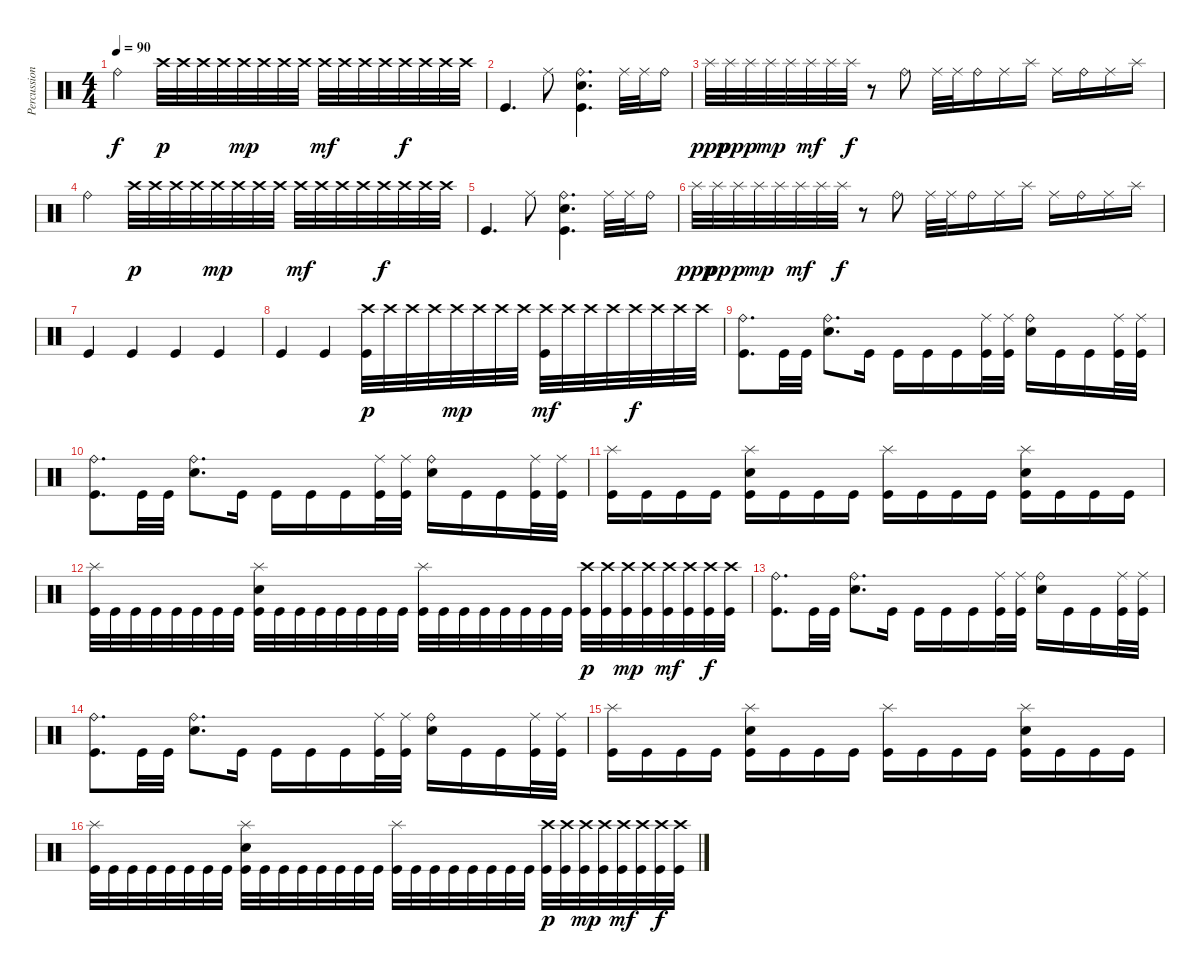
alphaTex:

\track ("Percussion" "Percussion") {instrument percussion}
\staff {score}
\articulation defaults
\ts (4 4)
\tempo 90
\clef neutral
\ks c "Ride (bell)".2{dy f} "Crash high (hit)".32{dy p} "Crash high (hit)".32 "Crash high (hit)".32 "Crash high (hit)".32 "Crash high (hit)".32{dy mp} "Crash high (hit)".32 "Crash high (hit)".32 "Crash high (hit)".32 "Crash high (hit)".32{dy mf} "Crash high (hit)".32 "Crash high (hit)".32 "Crash high (hit)".32 "Crash high (hit)".32{dy f} "Crash high (hit)".32 "Crash high (hit)".32 "Crash high (hit)".32
|
"Kick (hit)".4{d} "Ride (middle)".8 ("Ride (bell)" "Electric Snare (hit)" "Kick (hit)").4{d} "Ride (middle)".32 "Ride (middle)".32 "Ride (bell)".16 |
"Splash (hit)".32{dy ppp} "Splash (hit)".32{dy pp} "Splash (hit)".32{dy p} "Splash (hit)".32{dy mp} "Splash (hit)".32 "Splash (hit)".32{dy mf} "Splash (hit)".32 "Splash (hit)".32{dy f} r.8 "Ride (bell)".8 "Ride (middle)".32 "Ride (middle)".32 "Ride (bell)".16 "Ride (middle)".16 "Splash (hit)".16 "Ride (middle)".16 "Ride (bell)".16 "Ride (middle)".16 "Splash (hit)".16 |
"Ride (bell)".2 "Crash high (hit)".32{dy p} "Crash high (hit)".32 "Crash high (hit)".32 "Crash high (hit)".32 "Crash high (hit)".32{dy mp} "Crash high (hit)".32 "Crash high (hit)".32 "Crash high (hit)".32 "Crash high (hit)".32{dy mf} "Crash high (hit)".32 "Crash high (hit)".32 "Crash high (hit)".32 "Crash high (hit)".32{dy f} "Crash high (hit)".32 "Crash high (hit)".32 "Crash high (hit)".32 |
"Kick (hit)".4{d} "Ride (middle)".8 ("Ride (bell)" "Electric Snare (hit)" "Kick (hit)").4{d} "Ride (middle)".32 "Ride (middle)".32 "Ride (bell)".16 |
"Splash (hit)".32{dy ppp} "Splash (hit)".32{dy pp} "Splash (hit)".32{dy p} "Splash (hit)".32{dy mp} "Splash (hit)".32 "Splash (hit)".32{dy mf} "Splash (hit)".32 "Splash (hit)".32{dy f} r.8 "Ride (bell)".8 "Ride (middle)".32 "Ride (middle)".32 "Ride (bell)".16 "Ride (middle)".16 "Splash (hit)".16 "Ride (middle)".16 "Ride (bell)".16 "Ride (middle)".16 "Splash (hit)".16 |
"Kick (hit)".4 "Kick (hit)".4 "Kick (hit)".4 "Kick (hit)".4 |
"Kick (hit)".4 "Kick (hit)".4 ("Crash high (hit)" "Kick (hit)").32{dy p} "Crash high (hit)".32 "Crash high (hit)".32 "Crash high (hit)".32 "Crash high (hit)".32{dy mp} "Crash high (hit)".32 "Crash high (hit)".32 "Crash high (hit)".32 ("Crash high (hit)" "Kick (hit)").32{dy mf} "Crash high (hit)".32 "Crash high (hit)".32 "Crash high (hit)".32 "Crash high (hit)".32{dy f} "Crash high (hit)".32 "Crash high (hit)".32 "Crash high (hit)".32 |
("Ride (bell)" "Kick (hit)").8{d} "Kick (hit)".32 "Kick (hit)".32 ("Ride (bell)" "Electric Snare (hit)").8{d} "Kick (hit)".16 "Kick (hit)".16 "Kick (hit)".16 "Kick (hit)".16 ("Ride (middle)" "Kick (hit)").32 ("Ride (middle)" "Kick (hit)").32 ("Ride (bell)" "Electric Snare (hit)").16 "Kick (hit)".16 "Kick (hit)".16 ("Ride (middle)" "Kick (hit)").32 ("Ride (middle)" "Kick (hit)").32 |
("Ride (bell)" "Kick (hit)").8{d} "Kick (hit)".32 "Kick (hit)".32 ("Ride (bell)" "Electric Snare (hit)").8{d} "Kick (hit)".16 "Kick (hit)".16 "Kick (hit)".16 "Kick (hit)".16 ("Ride (middle)" "Kick (hit)").32 ("Ride (middle)" "Kick (hit)").32 ("Ride (bell)" "Electric Snare (hit)").16 "Kick (hit)".16 "Kick (hit)".16 ("Ride (middle)" "Kick (hit)").32 ("Ride (middle)" "Kick (hit)").32 |
("Splash (hit)" "Kick (hit)").16 "Kick (hit)".16 "Kick (hit)".16 "Kick (hit)".16 ("Splash (hit)" "Electric Snare (hit)" "Kick (hit)").16 "Kick (hit)".16 "Kick (hit)".16 "Kick (hit)".16 ("Splash (hit)" "Kick (hit)").16 "Kick (hit)".16 "Kick (hit)".16 "Kick (hit)".16 ("Splash (hit)" "Electric Snare (hit)" "Kick (hit)").16 "Kick (hit)".16 "Kick (hit)".16 "Kick (hit)".16 |
("Splash (hit)" "Kick (hit)").32 "Kick (hit)".32 "Kick (hit)".32 "Kick (hit)".32 "Kick (hit)".32 "Kick (hit)".32 "Kick (hit)".32 "Kick (hit)".32 ("Splash (hit)" "Electric Snare (hit)" "Kick (hit)").32 "Kick (hit)".32 "Kick (hit)".32 "Kick (hit)".32 "Kick (hit)".32 "Kick (hit)".32 "Kick (hit)".32 "Kick (hit)".32 ("Splash (hit)" "Kick (hit)").32 "Kick (hit)".32 "Kick (hit)".32 "Kick (hit)".32 "Kick (hit)".32 "Kick (hit)".32 "Kick (hit)".32 "Kick (hit)".32 ("Crash high (hit)" "Kick (hit)").32{dy p} ("Crash high (hit)" "Kick (hit)").32 ("Crash high (hit)" "Kick (hit)").32{dy mp} ("Crash high (hit)" "Kick (hit)").32 ("Crash high (hit)" "Kick (hit)").32{dy mf} ("Crash high (hit)" "Kick (hit)").32 ("Crash high (hit)" "Kick (hit)").32{dy f} ("Crash high (hit)" "Kick (hit)").32 |
("Ride (bell)" "Kick (hit)").8{d} "Kick (hit)".32 "Kick (hit)".32 ("Ride (bell)" "Electric Snare (hit)").8{d} "Kick (hit)".16 "Kick (hit)".16 "Kick (hit)".16 "Kick (hit)".16 ("Ride (middle)" "Kick (hit)").32 ("Ride (middle)" "Kick (hit)").32 ("Ride (bell)" "Electric Snare (hit)").16 "Kick (hit)".16 "Kick (hit)".16 ("Ride (middle)" "Kick (hit)").32 ("Ride (middle)" "Kick (hit)").32 |
("Ride (bell)" "Kick (hit)").8{d} "Kick (hit)".32 "Kick (hit)".32 ("Ride (bell)" "Electric Snare (hit)").8{d} "Kick (hit)".16 "Kick (hit)".16 "Kick (hit)".16 "Kick (hit)".16 ("Ride (middle)" "Kick (hit)").32 ("Ride (middle)" "Kick (hit)").32 ("Ride (bell)" "Electric Snare (hit)").16 "Kick (hit)".16 "Kick (hit)".16 ("Ride (middle)" "Kick (hit)").32 ("Ride (middle)" "Kick (hit)").32 |
("Splash (hit)" "Kick (hit)").16 "Kick (hit)".16 "Kick (hit)".16 "Kick (hit)".16 ("Splash (hit)" "Electric Snare (hit)" "Kick (hit)").16 "Kick (hit)".16 "Kick (hit)".16 "Kick (hit)".16 ("Splash (hit)" "Kick (hit)").16 "Kick (hit)".16 "Kick (hit)".16 "Kick (hit)".16 ("Splash (hit)" "Electric Snare (hit)" "Kick (hit)").16 "Kick (hit)".16 "Kick (hit)".16 "Kick (hit)".16 |
("Splash (hit)" "Kick (hit)").32 "Kick (hit)".32 "Kick (hit)".32 "Kick (hit)".32 "Kick (hit)".32 "Kick (hit)".32 "Kick (hit)".32 "Kick (hit)".32 ("Splash (hit)" "Electric Snare (hit)" "Kick (hit)").32 "Kick (hit)".32 "Kick (hit)".32 "Kick (hit)".32 "Kick (hit)".32 "Kick (hit)".32 "Kick (hit)".32 "Kick (hit)".32 ("Splash (hit)" "Kick (hit)").32 "Kick (hit)".32 "Kick (hit)".32 "Kick (hit)".32 "Kick (hit)".32 "Kick (hit)".32 "Kick (hit)".32 "Kick (hit)".32 ("Crash high (hit)" "Kick (hit)").32{dy p} ("Crash high (hit)" "Kick (hit)").32 ("Crash high (hit)" "Kick (hit)").32{dy mp} ("Crash high (hit)" "Kick (hit)").32 ("Crash high (hit)" "Kick (hit)").32{dy mf} ("Crash high (hit)" "Kick (hit)").32 ("Crash high (hit)" "Kick (hit)").32{dy f} ("Crash high (hit)" "Kick (hit)").32
